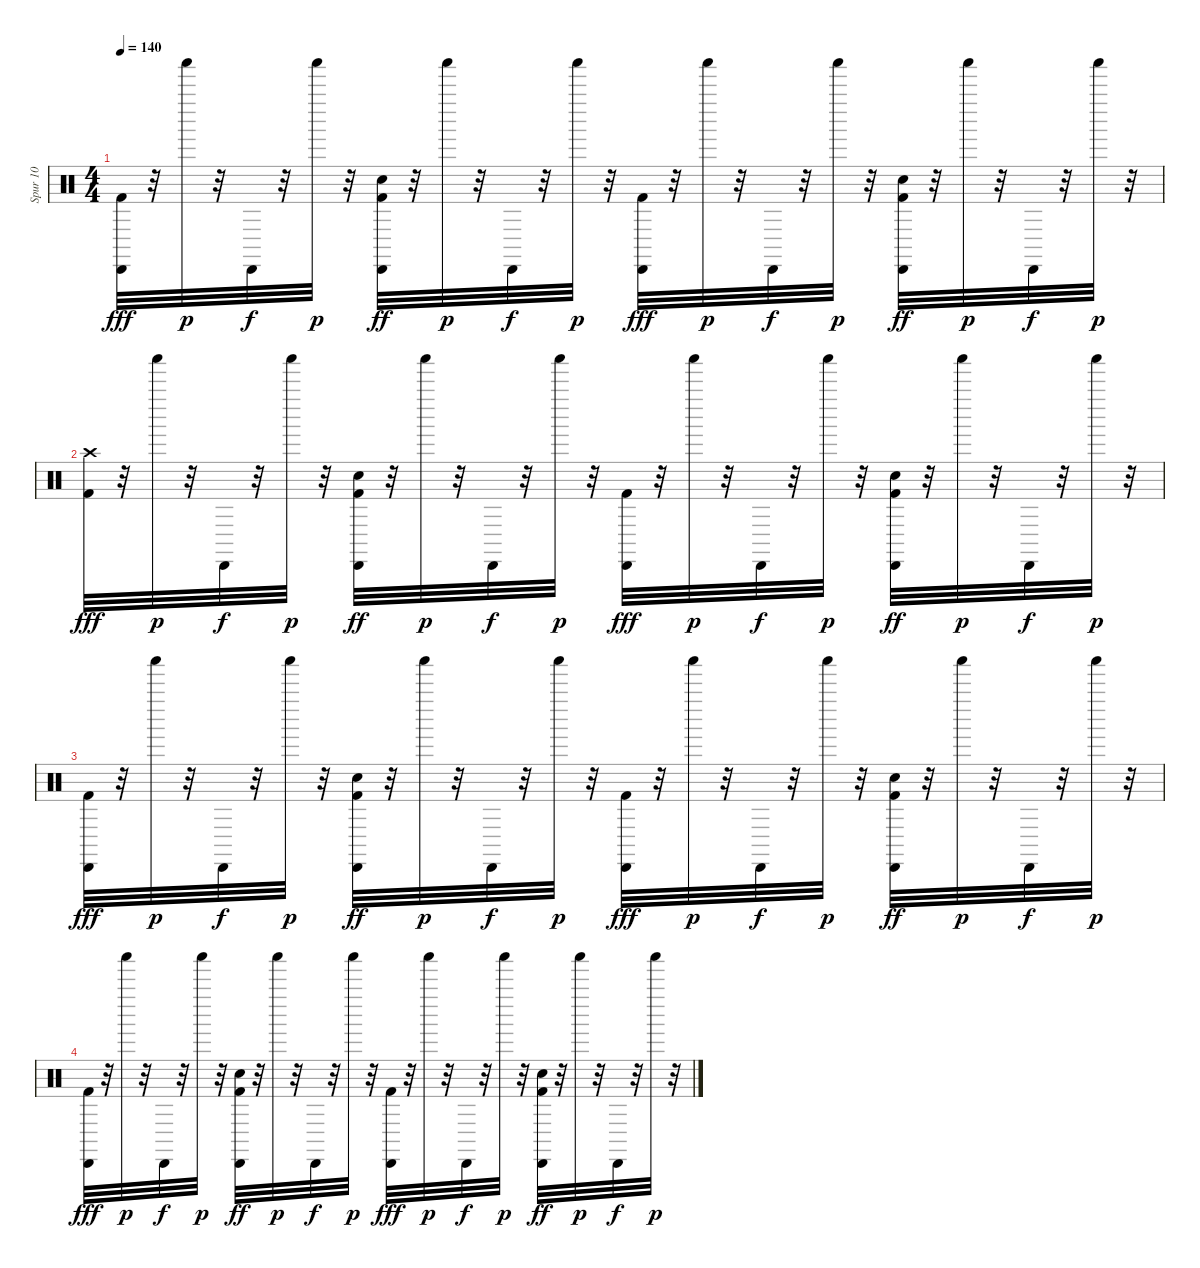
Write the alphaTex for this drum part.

\track ("Spur 10" "Spur 10") {instrument percussion}
\staff {score}
\articulation defaults
\ts (4 4)
\tempo 140
\clef neutral
\ks c
("Cabasa (hit)" "Kick (hit) 2").32{dy fff} r.32 "Shaker (hit)".32{dy p} r.32 "Cabasa (hit)".32{dy f} r.32 "Shaker (hit)".32{dy p} r.32 ("Snare (hit) 2" "Cabasa (hit)" "Kick (hit) 2").32{dy ff} r.32 "Shaker (hit)".32{dy p} r.32 "Cabasa (hit)".32{dy f} r.32 "Shaker (hit)".32{dy p} r.32 ("Cabasa (hit)" "Kick (hit) 2").32{dy fff} r.32 "Shaker (hit)".32{dy p} r.32 "Cabasa (hit)".32{dy f} r.32 "Shaker (hit)".32{dy p} r.32 ("Snare (hit) 2" "Cabasa (hit)" "Kick (hit) 2").32{dy ff} r.32 "Shaker (hit)".32{dy p} r.32 "Cabasa (hit)".32{dy f} r.32 "Shaker (hit)".32{dy p} r.32 |
("Crash high (hit)" "Kick (hit) 2").32{dy fff} r.32 "Shaker (hit)".32{dy p} r.32 "Cabasa (hit)".32{dy f} r.32 "Shaker (hit)".32{dy p} r.32 ("Snare (hit) 2" "Cabasa (hit)" "Kick (hit) 2").32{dy ff} r.32 "Shaker (hit)".32{dy p} r.32 "Cabasa (hit)".32{dy f} r.32 "Shaker (hit)".32{dy p} r.32 ("Cabasa (hit)" "Kick (hit) 2").32{dy fff} r.32 "Shaker (hit)".32{dy p} r.32 "Cabasa (hit)".32{dy f} r.32 "Shaker (hit)".32{dy p} r.32 ("Snare (hit) 2" "Cabasa (hit)" "Kick (hit) 2").32{dy ff} r.32 "Shaker (hit)".32{dy p} r.32 "Cabasa (hit)".32{dy f} r.32 "Shaker (hit)".32{dy p} r.32 |
("Cabasa (hit)" "Kick (hit) 2").32{dy fff} r.32 "Shaker (hit)".32{dy p} r.32 "Cabasa (hit)".32{dy f} r.32 "Shaker (hit)".32{dy p} r.32 ("Snare (hit) 2" "Cabasa (hit)" "Kick (hit) 2").32{dy ff} r.32 "Shaker (hit)".32{dy p} r.32 "Cabasa (hit)".32{dy f} r.32 "Shaker (hit)".32{dy p} r.32 ("Cabasa (hit)" "Kick (hit) 2").32{dy fff} r.32 "Shaker (hit)".32{dy p} r.32 "Cabasa (hit)".32{dy f} r.32 "Shaker (hit)".32{dy p} r.32 ("Snare (hit) 2" "Cabasa (hit)" "Kick (hit) 2").32{dy ff} r.32 "Shaker (hit)".32{dy p} r.32 "Cabasa (hit)".32{dy f} r.32 "Shaker (hit)".32{dy p} r.32 |
("Cabasa (hit)" "Kick (hit) 2").32{dy fff} r.32 "Shaker (hit)".32{dy p} r.32 "Cabasa (hit)".32{dy f} r.32 "Shaker (hit)".32{dy p} r.32 ("Snare (hit) 2" "Cabasa (hit)" "Kick (hit) 2").32{dy ff} r.32 "Shaker (hit)".32{dy p} r.32 "Cabasa (hit)".32{dy f} r.32 "Shaker (hit)".32{dy p} r.32 ("Cabasa (hit)" "Kick (hit) 2").32{dy fff} r.32 "Shaker (hit)".32{dy p} r.32 "Cabasa (hit)".32{dy f} r.32 "Shaker (hit)".32{dy p} r.32 ("Snare (hit) 2" "Cabasa (hit)" "Kick (hit) 2").32{dy ff} r.32 "Shaker (hit)".32{dy p} r.32 "Cabasa (hit)".32{dy f} r.32 "Shaker (hit)".32{dy p} r.32
